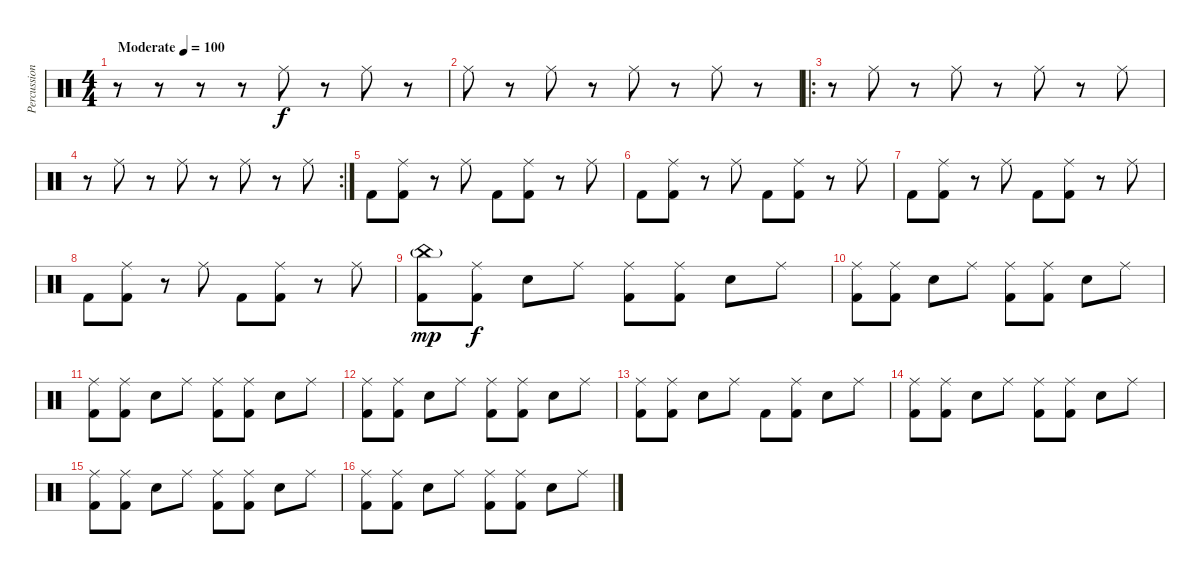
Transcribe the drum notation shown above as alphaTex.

\track ("Percussion" "Percussion") {instrument percussion}
\staff {score}
\articulation defaults
\ts (4 4)
\tempo (100 "Moderate")
\clef neutral
\ks c
r.8{dy f} r.8 r.8 r.8 "Ride (middle)".8 r.8 "Ride (middle)".8 r.8 |
"Ride (middle)".8 r.8 "Ride (middle)".8 r.8 "Ride (middle)".8 r.8 "Ride (middle)".8 r.8 |
\ro
r.8 "Ride (middle)".8 r.8 "Ride (middle)".8 r.8 "Ride (middle)".8 r.8 "Ride (middle)".8 |
\rc 2
r.8 "Ride (middle)".8 r.8 "Ride (middle)".8 r.8 "Ride (middle)".8 r.8 "Ride (middle)".8 |
"Kick (hit) 2".8 ("Ride (middle)" "Kick (hit) 2").8 r.8 "Ride (middle)".8 "Kick (hit) 2".8 ("Ride (middle)" "Kick (hit) 2").8 r.8 "Ride (middle)".8 |
"Kick (hit) 2".8 ("Ride (middle)" "Kick (hit) 2").8 r.8 "Ride (middle)".8 "Kick (hit) 2".8 ("Ride (middle)" "Kick (hit) 2").8 r.8 "Ride (middle)".8 |
"Kick (hit) 2".8 ("Ride (middle)" "Kick (hit) 2").8 r.8 "Ride (middle)".8 "Kick (hit) 2".8 ("Ride (middle)" "Kick (hit) 2").8 r.8 "Ride (middle)".8 |
"Kick (hit) 2".8 ("Ride (middle)" "Kick (hit) 2").8 r.8 "Ride (middle)".8 "Kick (hit) 2".8 ("Ride (middle)" "Kick (hit) 2").8 r.8 "Ride (middle)".8 |
("China (hit)"{g} "Kick (hit) 2").8{dy mp} ("Ride (middle)" "Kick (hit) 2").8{dy f} "Electric Snare (hit)".8 "Ride (middle)".8 ("Ride (middle)" "Kick (hit) 2").8 ("Ride (middle)" "Kick (hit) 2").8 "Electric Snare (hit)".8 "Ride (middle)".8 |
("Ride (middle)" "Kick (hit) 2").8 ("Ride (middle)" "Kick (hit) 2").8 "Electric Snare (hit)".8 "Ride (middle)".8 ("Ride (middle)" "Kick (hit) 2").8 ("Ride (middle)" "Kick (hit) 2").8 "Electric Snare (hit)".8 "Ride (middle)".8 |
("Ride (middle)" "Kick (hit) 2").8 ("Ride (middle)" "Kick (hit) 2").8 "Electric Snare (hit)".8 "Ride (middle)".8 ("Ride (middle)" "Kick (hit) 2").8 ("Ride (middle)" "Kick (hit) 2").8 "Electric Snare (hit)".8 "Ride (middle)".8 |
("Ride (middle)" "Kick (hit) 2").8 ("Ride (middle)" "Kick (hit) 2").8 "Electric Snare (hit)".8 "Ride (middle)".8 ("Ride (middle)" "Kick (hit) 2").8 ("Ride (middle)" "Kick (hit) 2").8 "Electric Snare (hit)".8 "Ride (middle)".8 |
("Ride (middle)" "Kick (hit) 2").8 ("Ride (middle)" "Kick (hit) 2").8 "Electric Snare (hit)".8 "Ride (middle)".8 "Kick (hit) 2".8 ("Ride (middle)" "Kick (hit) 2").8 "Electric Snare (hit)".8 "Ride (middle)".8 |
("Ride (middle)" "Kick (hit) 2").8 ("Ride (middle)" "Kick (hit) 2").8 "Electric Snare (hit)".8 "Ride (middle)".8 ("Ride (middle)" "Kick (hit) 2").8 ("Ride (middle)" "Kick (hit) 2").8 "Electric Snare (hit)".8 "Ride (middle)".8 |
("Ride (middle)" "Kick (hit) 2").8 ("Ride (middle)" "Kick (hit) 2").8 "Electric Snare (hit)".8 "Ride (middle)".8 ("Ride (middle)" "Kick (hit) 2").8 ("Ride (middle)" "Kick (hit) 2").8 "Electric Snare (hit)".8 "Ride (middle)".8 |
("Ride (middle)" "Kick (hit) 2").8 ("Ride (middle)" "Kick (hit) 2").8 "Electric Snare (hit)".8 "Ride (middle)".8 ("Ride (middle)" "Kick (hit) 2").8 ("Ride (middle)" "Kick (hit) 2").8 "Electric Snare (hit)".8 "Ride (middle)".8
